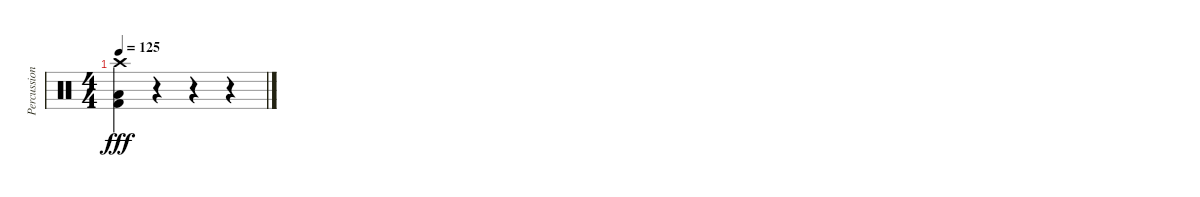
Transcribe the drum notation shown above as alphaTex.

\track ("Percussion" "Percussion") {instrument percussion}
\staff {score}
\articulation defaults
\ts (4 4)
\tempo 125
\clef neutral
\ks c
("Low Floor Tom (hit)" "Kick (hit) 2" "Crash high (hit)").4{dy fff} r.4 r.4 r.4
